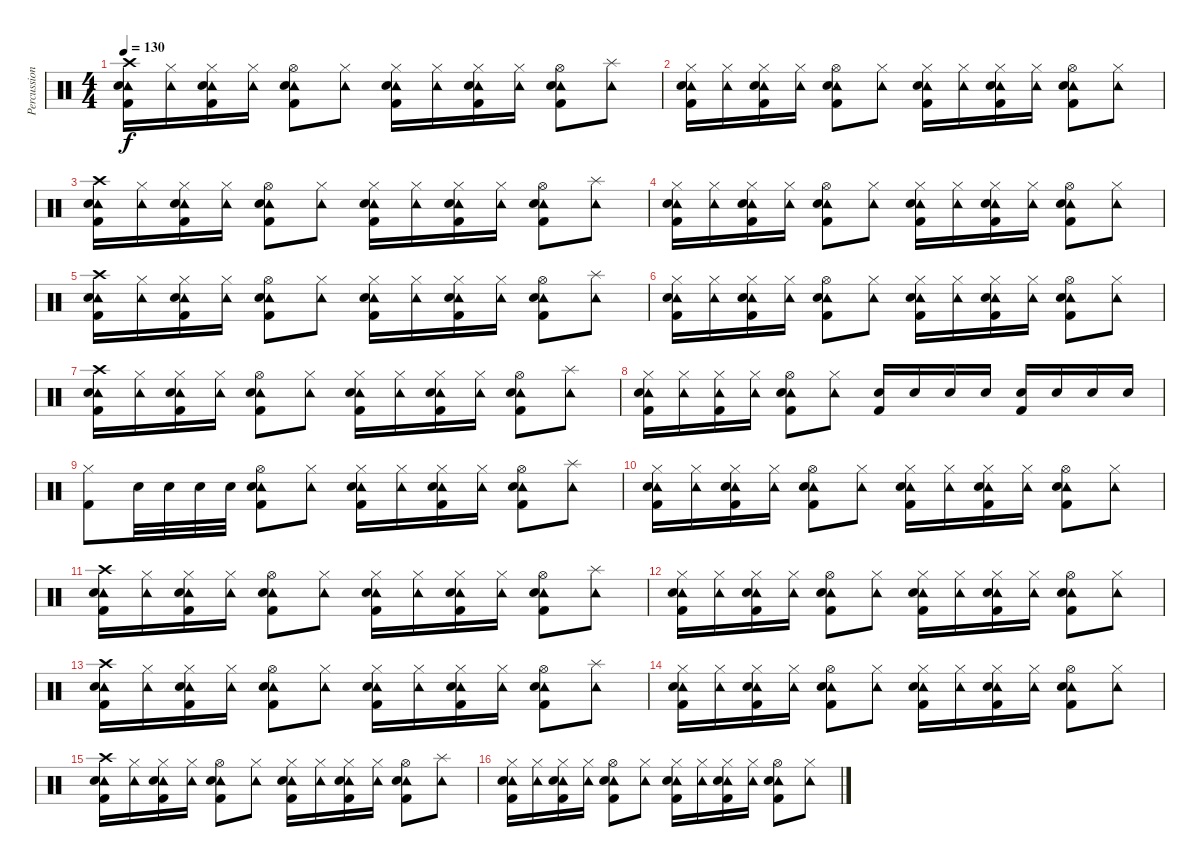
\track ("Percussion" "Percussion") {instrument percussion}
\staff {score}
\articulation defaults
\ts (4 4)
\tempo 130
\clef neutral
\ks c
("Crash high (hit)" "Tambourine (hit)" "Electric Snare (hit)" "Kick (hit) 2").16{dy f volume 16} ("Hi-Hat (closed)" "Tambourine (hit)").16 ("Hi-Hat (closed)" "Tambourine (hit)" "Electric Snare (hit)" "Kick (hit) 2").16 ("Hi-Hat (closed)" "Tambourine (hit)").16 ("Hi-Hat (open)" "Tambourine (hit)" "Electric Snare (hit)" "Kick (hit) 2").8 ("Hi-Hat (closed)" "Tambourine (hit)").8 ("Hi-Hat (closed)" "Tambourine (hit)" "Electric Snare (hit)" "Kick (hit) 2").16 ("Hi-Hat (closed)" "Tambourine (hit)").16 ("Hi-Hat (closed)" "Tambourine (hit)" "Electric Snare (hit)" "Kick (hit) 2").16 ("Hi-Hat (closed)" "Tambourine (hit)").16 ("Hi-Hat (open)" "Tambourine (hit)" "Electric Snare (hit)" "Kick (hit) 2").8 ("Splash (hit)" "Tambourine (hit)").8 |
("Hi-Hat (closed)" "Tambourine (hit)" "Electric Snare (hit)" "Kick (hit) 2").16 ("Hi-Hat (closed)" "Tambourine (hit)").16 ("Hi-Hat (closed)" "Tambourine (hit)" "Electric Snare (hit)" "Kick (hit) 2").16 ("Hi-Hat (closed)" "Tambourine (hit)").16 ("Hi-Hat (open)" "Tambourine (hit)" "Electric Snare (hit)" "Kick (hit) 2").8 ("Hi-Hat (closed)" "Tambourine (hit)").8 ("Hi-Hat (closed)" "Tambourine (hit)" "Electric Snare (hit)" "Kick (hit) 2").16 ("Hi-Hat (closed)" "Tambourine (hit)").16 ("Hi-Hat (closed)" "Tambourine (hit)" "Electric Snare (hit)" "Kick (hit) 2").16 ("Hi-Hat (closed)" "Tambourine (hit)").16 ("Hi-Hat (open)" "Tambourine (hit)" "Electric Snare (hit)" "Kick (hit) 2").8 ("Hi-Hat (closed)" "Tambourine (hit)").8 |
("Crash high (hit)" "Tambourine (hit)" "Electric Snare (hit)" "Kick (hit) 2").16{volume 16} ("Hi-Hat (closed)" "Tambourine (hit)").16 ("Hi-Hat (closed)" "Tambourine (hit)" "Electric Snare (hit)" "Kick (hit) 2").16 ("Hi-Hat (closed)" "Tambourine (hit)").16 ("Hi-Hat (open)" "Tambourine (hit)" "Electric Snare (hit)" "Kick (hit) 2").8 ("Hi-Hat (closed)" "Tambourine (hit)").8 ("Hi-Hat (closed)" "Tambourine (hit)" "Electric Snare (hit)" "Kick (hit) 2").16 ("Hi-Hat (closed)" "Tambourine (hit)").16 ("Hi-Hat (closed)" "Tambourine (hit)" "Electric Snare (hit)" "Kick (hit) 2").16 ("Hi-Hat (closed)" "Tambourine (hit)").16 ("Hi-Hat (open)" "Tambourine (hit)" "Electric Snare (hit)" "Kick (hit) 2").8 ("Splash (hit)" "Tambourine (hit)").8 |
("Hi-Hat (closed)" "Tambourine (hit)" "Electric Snare (hit)" "Kick (hit) 2").16 ("Hi-Hat (closed)" "Tambourine (hit)").16 ("Hi-Hat (closed)" "Tambourine (hit)" "Electric Snare (hit)" "Kick (hit) 2").16 ("Hi-Hat (closed)" "Tambourine (hit)").16 ("Hi-Hat (open)" "Tambourine (hit)" "Electric Snare (hit)" "Kick (hit) 2").8 ("Hi-Hat (closed)" "Tambourine (hit)").8 ("Hi-Hat (closed)" "Tambourine (hit)" "Electric Snare (hit)" "Kick (hit) 2").16 ("Hi-Hat (closed)" "Tambourine (hit)").16 ("Hi-Hat (closed)" "Tambourine (hit)" "Electric Snare (hit)" "Kick (hit) 2").16 ("Hi-Hat (closed)" "Tambourine (hit)").16 ("Hi-Hat (open)" "Tambourine (hit)" "Electric Snare (hit)" "Kick (hit) 2").8 ("Hi-Hat (closed)" "Tambourine (hit)").8 |
("Crash high (hit)" "Tambourine (hit)" "Electric Snare (hit)" "Kick (hit) 2").16{volume 16} ("Hi-Hat (closed)" "Tambourine (hit)").16 ("Hi-Hat (closed)" "Tambourine (hit)" "Electric Snare (hit)" "Kick (hit) 2").16 ("Hi-Hat (closed)" "Tambourine (hit)").16 ("Hi-Hat (open)" "Tambourine (hit)" "Electric Snare (hit)" "Kick (hit) 2").8 ("Hi-Hat (closed)" "Tambourine (hit)").8 ("Hi-Hat (closed)" "Tambourine (hit)" "Electric Snare (hit)" "Kick (hit) 2").16 ("Hi-Hat (closed)" "Tambourine (hit)").16 ("Hi-Hat (closed)" "Tambourine (hit)" "Electric Snare (hit)" "Kick (hit) 2").16 ("Hi-Hat (closed)" "Tambourine (hit)").16 ("Hi-Hat (open)" "Tambourine (hit)" "Electric Snare (hit)" "Kick (hit) 2").8 ("Splash (hit)" "Tambourine (hit)").8 |
("Hi-Hat (closed)" "Tambourine (hit)" "Electric Snare (hit)" "Kick (hit) 2").16 ("Hi-Hat (closed)" "Tambourine (hit)").16 ("Hi-Hat (closed)" "Tambourine (hit)" "Electric Snare (hit)" "Kick (hit) 2").16 ("Hi-Hat (closed)" "Tambourine (hit)").16 ("Hi-Hat (open)" "Tambourine (hit)" "Electric Snare (hit)" "Kick (hit) 2").8 ("Hi-Hat (closed)" "Tambourine (hit)").8 ("Hi-Hat (closed)" "Tambourine (hit)" "Electric Snare (hit)" "Kick (hit) 2").16 ("Hi-Hat (closed)" "Tambourine (hit)").16 ("Hi-Hat (closed)" "Tambourine (hit)" "Electric Snare (hit)" "Kick (hit) 2").16 ("Hi-Hat (closed)" "Tambourine (hit)").16 ("Hi-Hat (open)" "Tambourine (hit)" "Electric Snare (hit)" "Kick (hit) 2").8 ("Hi-Hat (closed)" "Tambourine (hit)").8 |
("Crash high (hit)" "Tambourine (hit)" "Electric Snare (hit)" "Kick (hit) 2").16{volume 16} ("Hi-Hat (closed)" "Tambourine (hit)").16 ("Hi-Hat (closed)" "Tambourine (hit)" "Electric Snare (hit)" "Kick (hit) 2").16 ("Hi-Hat (closed)" "Tambourine (hit)").16 ("Hi-Hat (open)" "Tambourine (hit)" "Electric Snare (hit)" "Kick (hit) 2").8 ("Hi-Hat (closed)" "Tambourine (hit)").8 ("Hi-Hat (closed)" "Tambourine (hit)" "Electric Snare (hit)" "Kick (hit) 2").16 ("Hi-Hat (closed)" "Tambourine (hit)").16 ("Hi-Hat (closed)" "Tambourine (hit)" "Electric Snare (hit)" "Kick (hit) 2").16 ("Hi-Hat (closed)" "Tambourine (hit)").16 ("Hi-Hat (open)" "Tambourine (hit)" "Electric Snare (hit)" "Kick (hit) 2").8 ("Splash (hit)" "Tambourine (hit)").8 |
("Hi-Hat (closed)" "Tambourine (hit)" "Electric Snare (hit)" "Kick (hit) 2").16 ("Hi-Hat (closed)" "Tambourine (hit)").16 ("Hi-Hat (closed)" "Tambourine (hit)" "Kick (hit) 2").16 ("Hi-Hat (closed)" "Tambourine (hit)").16 ("Hi-Hat (open)" "Tambourine (hit)" "Electric Snare (hit)" "Kick (hit) 2").8 ("Hi-Hat (closed)" "Tambourine (hit)").8 ("Snare (hit) 2" "Kick (hit) 2").16 "Snare (hit) 2".16 "Snare (hit) 2".16 "Snare (hit) 2".16 ("Snare (hit) 2" "Kick (hit) 2").16 "Snare (hit) 2".16 "Snare (hit) 2".16 "Snare (hit) 2".16 |
("Hi-Hat (closed)" "Kick (hit) 2").8 "Snare (hit) 2".32 "Snare (hit) 2".32 "Snare (hit) 2".32 "Snare (hit) 2".32 ("Hi-Hat (open)" "Tambourine (hit)" "Electric Snare (hit)" "Kick (hit) 2").8 ("Hi-Hat (closed)" "Tambourine (hit)").8 ("Hi-Hat (closed)" "Tambourine (hit)" "Electric Snare (hit)" "Kick (hit) 2").16 ("Hi-Hat (closed)" "Tambourine (hit)").16 ("Hi-Hat (closed)" "Tambourine (hit)" "Electric Snare (hit)" "Kick (hit) 2").16 ("Hi-Hat (closed)" "Tambourine (hit)").16 ("Hi-Hat (open)" "Tambourine (hit)" "Electric Snare (hit)" "Kick (hit) 2").8 ("Splash (hit)" "Tambourine (hit)").8 |
("Hi-Hat (closed)" "Tambourine (hit)" "Electric Snare (hit)" "Kick (hit) 2").16 ("Hi-Hat (closed)" "Tambourine (hit)").16 ("Hi-Hat (closed)" "Tambourine (hit)" "Electric Snare (hit)" "Kick (hit) 2").16 ("Hi-Hat (closed)" "Tambourine (hit)").16 ("Hi-Hat (open)" "Tambourine (hit)" "Electric Snare (hit)" "Kick (hit) 2").8 ("Hi-Hat (closed)" "Tambourine (hit)").8 ("Hi-Hat (closed)" "Tambourine (hit)" "Electric Snare (hit)" "Kick (hit) 2").16 ("Hi-Hat (closed)" "Tambourine (hit)").16 ("Hi-Hat (closed)" "Tambourine (hit)" "Electric Snare (hit)" "Kick (hit) 2").16 ("Hi-Hat (closed)" "Tambourine (hit)").16 ("Hi-Hat (open)" "Tambourine (hit)" "Electric Snare (hit)" "Kick (hit) 2").8 ("Hi-Hat (closed)" "Tambourine (hit)").8 |
("Crash high (hit)" "Tambourine (hit)" "Electric Snare (hit)" "Kick (hit) 2").16{volume 16} ("Hi-Hat (closed)" "Tambourine (hit)").16 ("Hi-Hat (closed)" "Tambourine (hit)" "Electric Snare (hit)" "Kick (hit) 2").16 ("Hi-Hat (closed)" "Tambourine (hit)").16 ("Hi-Hat (open)" "Tambourine (hit)" "Electric Snare (hit)" "Kick (hit) 2").8 ("Hi-Hat (closed)" "Tambourine (hit)").8 ("Hi-Hat (closed)" "Tambourine (hit)" "Electric Snare (hit)" "Kick (hit) 2").16 ("Hi-Hat (closed)" "Tambourine (hit)").16 ("Hi-Hat (closed)" "Tambourine (hit)" "Electric Snare (hit)" "Kick (hit) 2").16 ("Hi-Hat (closed)" "Tambourine (hit)").16 ("Hi-Hat (open)" "Tambourine (hit)" "Electric Snare (hit)" "Kick (hit) 2").8 ("Splash (hit)" "Tambourine (hit)").8 |
("Hi-Hat (closed)" "Tambourine (hit)" "Electric Snare (hit)" "Kick (hit) 2").16 ("Hi-Hat (closed)" "Tambourine (hit)").16 ("Hi-Hat (closed)" "Tambourine (hit)" "Electric Snare (hit)" "Kick (hit) 2").16 ("Hi-Hat (closed)" "Tambourine (hit)").16 ("Hi-Hat (open)" "Tambourine (hit)" "Electric Snare (hit)" "Kick (hit) 2").8 ("Hi-Hat (closed)" "Tambourine (hit)").8 ("Hi-Hat (closed)" "Tambourine (hit)" "Electric Snare (hit)" "Kick (hit) 2").16 ("Hi-Hat (closed)" "Tambourine (hit)").16 ("Hi-Hat (closed)" "Tambourine (hit)" "Electric Snare (hit)" "Kick (hit) 2").16 ("Hi-Hat (closed)" "Tambourine (hit)").16 ("Hi-Hat (open)" "Tambourine (hit)" "Electric Snare (hit)" "Kick (hit) 2").8 ("Hi-Hat (closed)" "Tambourine (hit)").8 |
("Crash high (hit)" "Tambourine (hit)" "Electric Snare (hit)" "Kick (hit) 2").16{volume 16} ("Hi-Hat (closed)" "Tambourine (hit)").16 ("Hi-Hat (closed)" "Tambourine (hit)" "Electric Snare (hit)" "Kick (hit) 2").16 ("Hi-Hat (closed)" "Tambourine (hit)").16 ("Hi-Hat (open)" "Tambourine (hit)" "Electric Snare (hit)" "Kick (hit) 2").8 ("Hi-Hat (closed)" "Tambourine (hit)").8 ("Hi-Hat (closed)" "Tambourine (hit)" "Electric Snare (hit)" "Kick (hit) 2").16 ("Hi-Hat (closed)" "Tambourine (hit)").16 ("Hi-Hat (closed)" "Tambourine (hit)" "Electric Snare (hit)" "Kick (hit) 2").16 ("Hi-Hat (closed)" "Tambourine (hit)").16 ("Hi-Hat (open)" "Tambourine (hit)" "Electric Snare (hit)" "Kick (hit) 2").8 ("Splash (hit)" "Tambourine (hit)").8 |
("Hi-Hat (closed)" "Tambourine (hit)" "Electric Snare (hit)" "Kick (hit) 2").16 ("Hi-Hat (closed)" "Tambourine (hit)").16 ("Hi-Hat (closed)" "Tambourine (hit)" "Electric Snare (hit)" "Kick (hit) 2").16 ("Hi-Hat (closed)" "Tambourine (hit)").16 ("Hi-Hat (open)" "Tambourine (hit)" "Electric Snare (hit)" "Kick (hit) 2").8 ("Hi-Hat (closed)" "Tambourine (hit)").8 ("Hi-Hat (closed)" "Tambourine (hit)" "Electric Snare (hit)" "Kick (hit) 2").16 ("Hi-Hat (closed)" "Tambourine (hit)").16 ("Hi-Hat (closed)" "Tambourine (hit)" "Electric Snare (hit)" "Kick (hit) 2").16 ("Hi-Hat (closed)" "Tambourine (hit)").16 ("Hi-Hat (open)" "Tambourine (hit)" "Electric Snare (hit)" "Kick (hit) 2").8 ("Hi-Hat (closed)" "Tambourine (hit)").8 |
("Crash high (hit)" "Tambourine (hit)" "Electric Snare (hit)" "Kick (hit) 2").16{volume 16} ("Hi-Hat (closed)" "Tambourine (hit)").16 ("Hi-Hat (closed)" "Tambourine (hit)" "Electric Snare (hit)" "Kick (hit) 2").16 ("Hi-Hat (closed)" "Tambourine (hit)").16 ("Hi-Hat (open)" "Tambourine (hit)" "Electric Snare (hit)" "Kick (hit) 2").8 ("Hi-Hat (closed)" "Tambourine (hit)").8 ("Hi-Hat (closed)" "Tambourine (hit)" "Electric Snare (hit)" "Kick (hit) 2").16 ("Hi-Hat (closed)" "Tambourine (hit)").16 ("Hi-Hat (closed)" "Tambourine (hit)" "Electric Snare (hit)" "Kick (hit) 2").16 ("Hi-Hat (closed)" "Tambourine (hit)").16 ("Hi-Hat (open)" "Tambourine (hit)" "Electric Snare (hit)" "Kick (hit) 2").8 ("Splash (hit)" "Tambourine (hit)").8 |
("Hi-Hat (closed)" "Tambourine (hit)" "Electric Snare (hit)" "Kick (hit) 2").16 ("Hi-Hat (closed)" "Tambourine (hit)").16 ("Hi-Hat (closed)" "Tambourine (hit)" "Electric Snare (hit)" "Kick (hit) 2").16 ("Hi-Hat (closed)" "Tambourine (hit)").16 ("Hi-Hat (open)" "Tambourine (hit)" "Electric Snare (hit)" "Kick (hit) 2").8 ("Hi-Hat (closed)" "Tambourine (hit)").8 ("Hi-Hat (closed)" "Tambourine (hit)" "Electric Snare (hit)" "Kick (hit) 2").16 ("Hi-Hat (closed)" "Tambourine (hit)").16 ("Hi-Hat (closed)" "Tambourine (hit)" "Electric Snare (hit)" "Kick (hit) 2").16 ("Hi-Hat (closed)" "Tambourine (hit)").16 ("Hi-Hat (open)" "Tambourine (hit)" "Electric Snare (hit)" "Kick (hit) 2").8 ("Hi-Hat (closed)" "Tambourine (hit)").8
